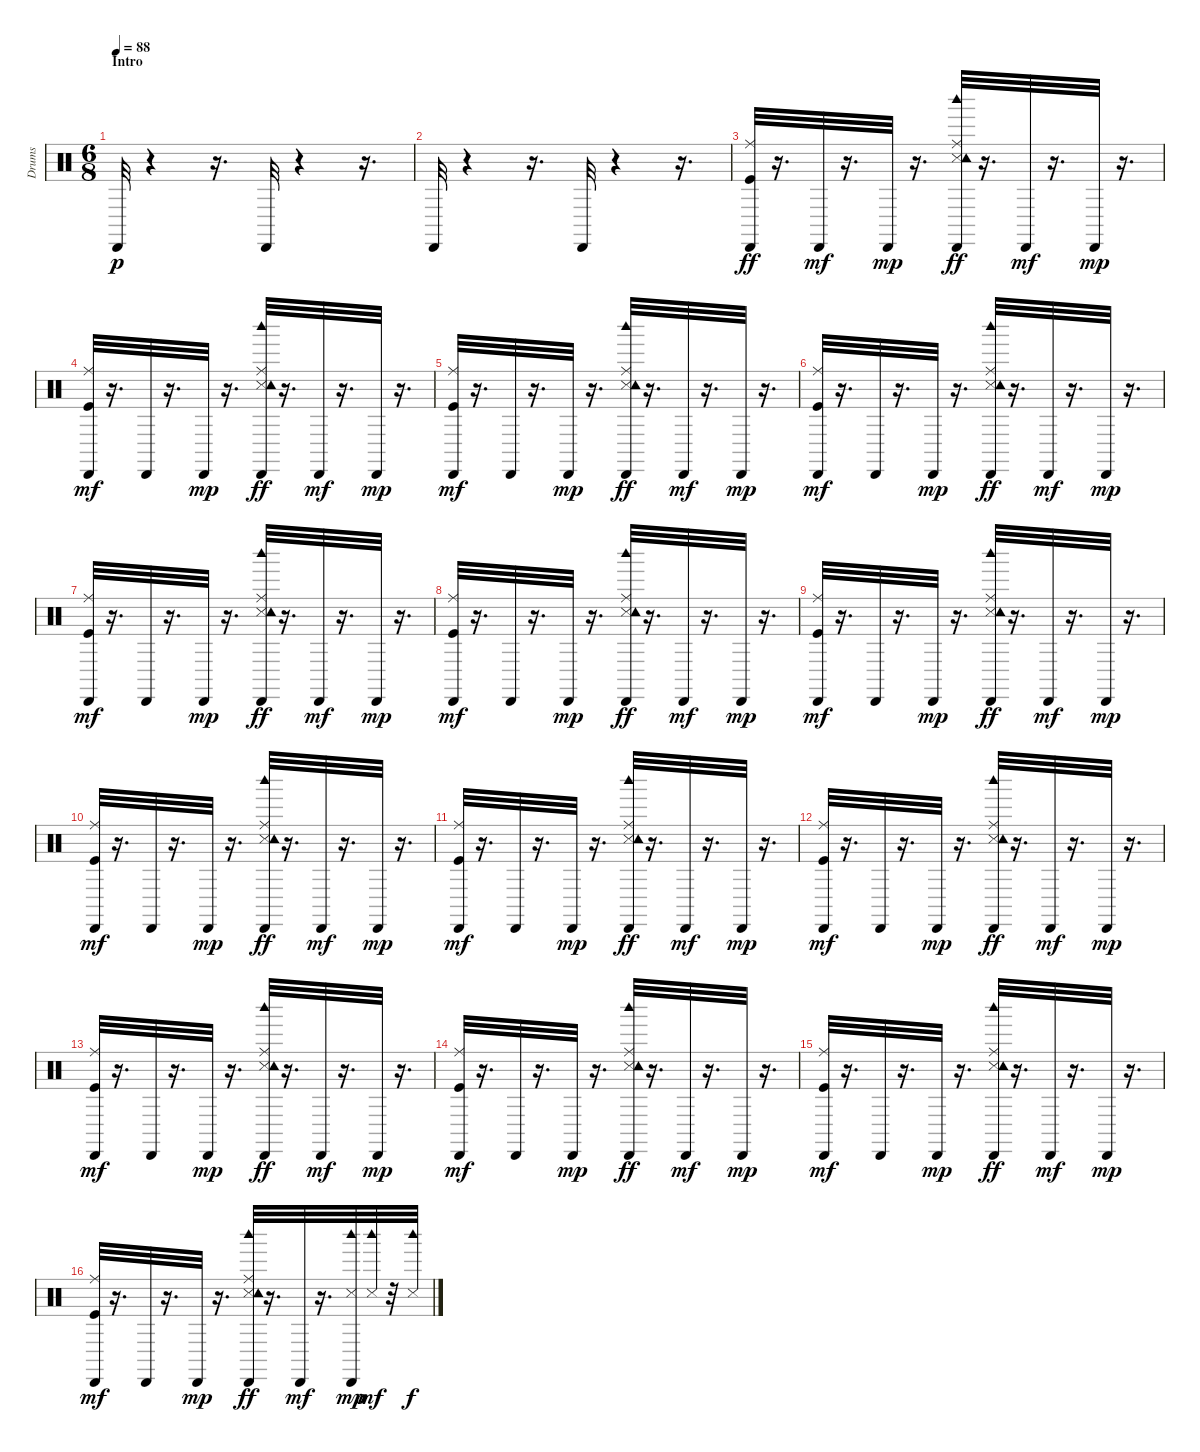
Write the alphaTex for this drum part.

\track ("Drums               " "Drums     ") {instrument percussion}
\staff {score}
\articulation defaults
\ts (6 8)
\section ("" "Intro")
\tempo 88
\clef neutral
\ks c "Cabasa (hit)".32{dy p}
r.4 r.16{d} "Cabasa (hit)".32 r.4 r.16{d} |
"Cabasa (hit)".32 r.4 r.16{d} "Cabasa (hit)".32 r.4 r.16{d} |
("Kick (hit)" "Ride (middle)" "Cabasa (hit)").32{dy ff} r.16{d} "Cabasa (hit)".32{dy mf} r.16{d} "Cabasa (hit)".32{dy mp} r.16{d} ("Snare (side stick) 3" "Ride (middle)" "Tambourine (hit)" "Cabasa (hit)" "Woodblock high (hit)").32{dy ff} r.16{d} "Cabasa (hit)".32{dy mf} r.16{d} "Cabasa (hit)".32{dy mp} r.16{d} |
("Kick (hit)" "Ride (middle)" "Cabasa (hit)").32{dy mf} r.16{d} "Cabasa (hit)".32 r.16{d} "Cabasa (hit)".32{dy mp} r.16{d} ("Snare (side stick) 3" "Ride (middle)" "Tambourine (hit)" "Cabasa (hit)" "Woodblock high (hit)").32{dy ff} r.16{d} "Cabasa (hit)".32{dy mf} r.16{d} "Cabasa (hit)".32{dy mp} r.16{d} |
("Kick (hit)" "Ride (middle)" "Cabasa (hit)").32{dy mf} r.16{d} "Cabasa (hit)".32 r.16{d} "Cabasa (hit)".32{dy mp} r.16{d} ("Snare (side stick) 3" "Ride (middle)" "Tambourine (hit)" "Cabasa (hit)" "Woodblock high (hit)").32{dy ff} r.16{d} "Cabasa (hit)".32{dy mf} r.16{d} "Cabasa (hit)".32{dy mp} r.16{d} |
("Kick (hit)" "Ride (middle)" "Cabasa (hit)").32{dy mf} r.16{d} "Cabasa (hit)".32 r.16{d} "Cabasa (hit)".32{dy mp} r.16{d} ("Snare (side stick) 3" "Ride (middle)" "Tambourine (hit)" "Cabasa (hit)" "Woodblock high (hit)").32{dy ff} r.16{d} "Cabasa (hit)".32{dy mf} r.16{d} "Cabasa (hit)".32{dy mp} r.16{d} |
("Kick (hit)" "Ride (middle)" "Cabasa (hit)").32{dy mf} r.16{d} "Cabasa (hit)".32 r.16{d} "Cabasa (hit)".32{dy mp} r.16{d} ("Snare (side stick) 3" "Ride (middle)" "Tambourine (hit)" "Cabasa (hit)" "Woodblock high (hit)").32{dy ff} r.16{d} "Cabasa (hit)".32{dy mf} r.16{d} "Cabasa (hit)".32{dy mp} r.16{d} |
("Kick (hit)" "Ride (middle)" "Cabasa (hit)").32{dy mf} r.16{d} "Cabasa (hit)".32 r.16{d} "Cabasa (hit)".32{dy mp} r.16{d} ("Snare (side stick) 3" "Ride (middle)" "Tambourine (hit)" "Cabasa (hit)" "Woodblock high (hit)").32{dy ff} r.16{d} "Cabasa (hit)".32{dy mf} r.16{d} "Cabasa (hit)".32{dy mp} r.16{d} |
("Kick (hit)" "Ride (middle)" "Cabasa (hit)").32{dy mf} r.16{d} "Cabasa (hit)".32 r.16{d} "Cabasa (hit)".32{dy mp} r.16{d} ("Snare (side stick) 3" "Ride (middle)" "Tambourine (hit)" "Cabasa (hit)" "Woodblock high (hit)").32{dy ff} r.16{d} "Cabasa (hit)".32{dy mf} r.16{d} "Cabasa (hit)".32{dy mp} r.16{d} |
("Kick (hit)" "Ride (middle)" "Cabasa (hit)").32{dy mf} r.16{d} "Cabasa (hit)".32 r.16{d} "Cabasa (hit)".32{dy mp} r.16{d} ("Snare (side stick) 3" "Ride (middle)" "Tambourine (hit)" "Cabasa (hit)" "Woodblock high (hit)").32{dy ff} r.16{d} "Cabasa (hit)".32{dy mf} r.16{d} "Cabasa (hit)".32{dy mp} r.16{d} |
("Kick (hit)" "Ride (middle)" "Cabasa (hit)").32{dy mf} r.16{d} "Cabasa (hit)".32 r.16{d} "Cabasa (hit)".32{dy mp} r.16{d} ("Snare (side stick) 3" "Ride (middle)" "Tambourine (hit)" "Cabasa (hit)" "Woodblock high (hit)").32{dy ff} r.16{d} "Cabasa (hit)".32{dy mf} r.16{d} "Cabasa (hit)".32{dy mp} r.16{d} |
("Kick (hit)" "Ride (middle)" "Cabasa (hit)").32{dy mf} r.16{d} "Cabasa (hit)".32 r.16{d} "Cabasa (hit)".32{dy mp} r.16{d} ("Snare (side stick) 3" "Ride (middle)" "Tambourine (hit)" "Cabasa (hit)" "Woodblock high (hit)").32{dy ff} r.16{d} "Cabasa (hit)".32{dy mf} r.16{d} "Cabasa (hit)".32{dy mp} r.16{d} |
("Kick (hit)" "Ride (middle)" "Cabasa (hit)").32{dy mf} r.16{d} "Cabasa (hit)".32 r.16{d} "Cabasa (hit)".32{dy mp} r.16{d} ("Snare (side stick) 3" "Ride (middle)" "Tambourine (hit)" "Cabasa (hit)" "Woodblock high (hit)").32{dy ff} r.16{d} "Cabasa (hit)".32{dy mf} r.16{d} "Cabasa (hit)".32{dy mp} r.16{d} |
("Kick (hit)" "Ride (middle)" "Cabasa (hit)").32{dy mf} r.16{d} "Cabasa (hit)".32 r.16{d} "Cabasa (hit)".32{dy mp} r.16{d} ("Snare (side stick) 3" "Ride (middle)" "Tambourine (hit)" "Cabasa (hit)" "Woodblock high (hit)").32{dy ff} r.16{d} "Cabasa (hit)".32{dy mf} r.16{d} "Cabasa (hit)".32{dy mp} r.16{d} |
("Kick (hit)" "Ride (middle)" "Cabasa (hit)").32{dy mf} r.16{d} "Cabasa (hit)".32 r.16{d} "Cabasa (hit)".32{dy mp} r.16{d} ("Snare (side stick) 3" "Ride (middle)" "Tambourine (hit)" "Cabasa (hit)" "Woodblock high (hit)").32{dy ff} r.16{d} "Cabasa (hit)".32{dy mf} r.16{d} "Cabasa (hit)".32{dy mp} r.16{d} |
("Kick (hit)" "Ride (middle)" "Cabasa (hit)").32{dy mf} r.16{d} "Cabasa (hit)".32 r.16{d} "Cabasa (hit)".32{dy mp} r.16{d} ("Snare (side stick) 3" "Ride (middle)" "Tambourine (hit)" "Cabasa (hit)" "Woodblock high (hit)").32{dy ff} r.16{d} "Cabasa (hit)".32{dy mf} r.16{d} ("Snare (side stick) 3" "Cabasa (hit)" "Woodblock high (hit)").32{dy mp} ("Snare (side stick) 3" "Woodblock high (hit)").32{dy mf} r.32 ("Snare (side stick) 3" "Woodblock high (hit)").32{dy f}
